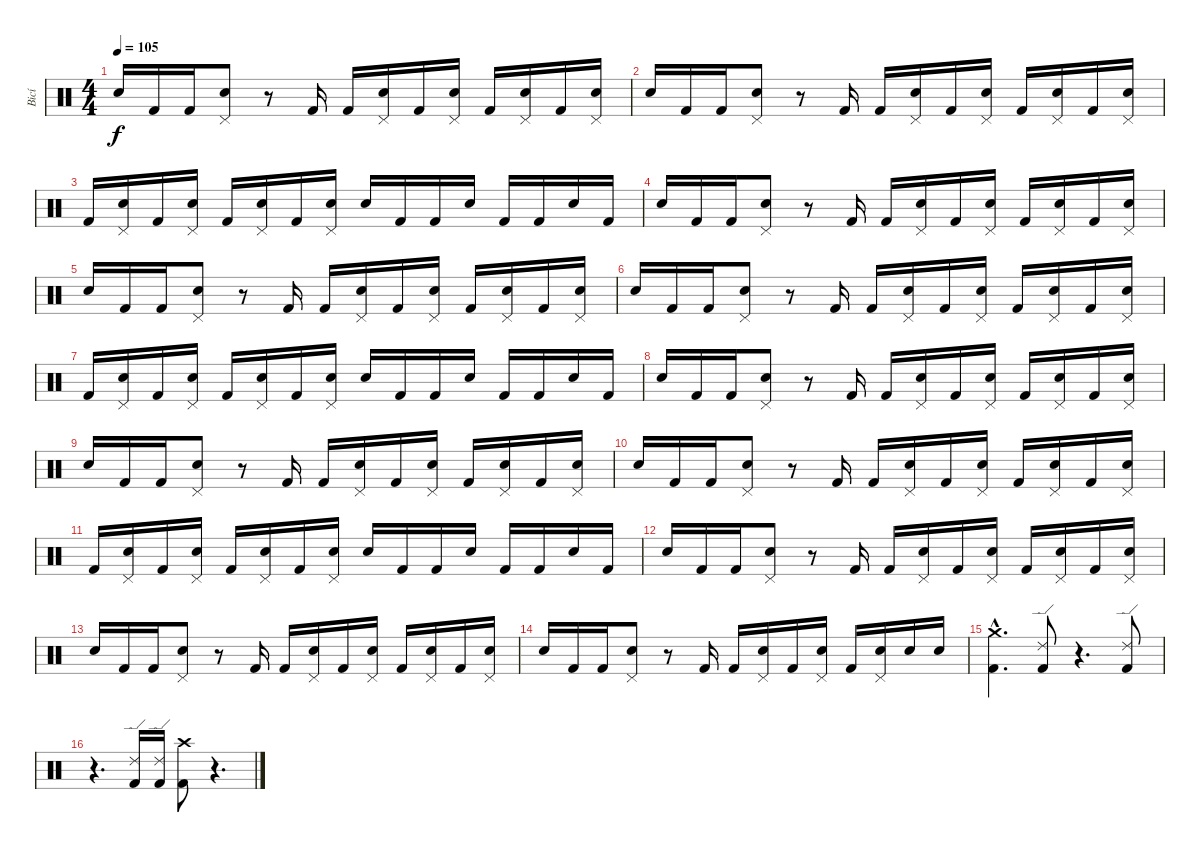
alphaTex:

\track ("Bicí" "Bicí") {instrument percussion}
\staff {score}
\articulation defaults
\ts (4 4)
\tempo 105
\clef neutral
\ks c "Snare (hit) 2".16{dy f} "Kick (hit) 2".16 "Kick (hit) 2".16
("Pedal Hi-Hat (hit)" "Snare (hit) 2").8 r.8 "Kick (hit) 2".16 "Kick (hit) 2".16 ("Pedal Hi-Hat (hit)" "Snare (hit) 2").16 "Kick (hit) 2".16 ("Pedal Hi-Hat (hit)" "Snare (hit) 2").16 "Kick (hit) 2".16 ("Pedal Hi-Hat (hit)" "Snare (hit) 2").16 "Kick (hit) 2".16 ("Pedal Hi-Hat (hit)" "Snare (hit) 2").16 |
"Snare (hit) 2".16 "Kick (hit) 2".16 "Kick (hit) 2".16 ("Pedal Hi-Hat (hit)" "Snare (hit) 2").8 r.8 "Kick (hit) 2".16 "Kick (hit) 2".16 ("Pedal Hi-Hat (hit)" "Snare (hit) 2").16 "Kick (hit) 2".16 ("Pedal Hi-Hat (hit)" "Snare (hit) 2").16 "Kick (hit) 2".16 ("Pedal Hi-Hat (hit)" "Snare (hit) 2").16 "Kick (hit) 2".16 ("Pedal Hi-Hat (hit)" "Snare (hit) 2").16 |
"Kick (hit) 2".16 ("Pedal Hi-Hat (hit)" "Snare (hit) 2").16 "Kick (hit) 2".16 ("Pedal Hi-Hat (hit)" "Snare (hit) 2").16 "Kick (hit) 2".16 ("Pedal Hi-Hat (hit)" "Snare (hit) 2").16 "Kick (hit) 2".16 ("Pedal Hi-Hat (hit)" "Snare (hit) 2").16 "Snare (hit) 2".16 "Kick (hit) 2".16 "Kick (hit) 2".16 "Snare (hit) 2".16 "Kick (hit) 2".16 "Kick (hit) 2".16 "Snare (hit) 2".16 "Kick (hit) 2".16 |
"Snare (hit) 2".16 "Kick (hit) 2".16 "Kick (hit) 2".16 ("Pedal Hi-Hat (hit)" "Snare (hit) 2").8 r.8 "Kick (hit) 2".16 "Kick (hit) 2".16 ("Pedal Hi-Hat (hit)" "Snare (hit) 2").16 "Kick (hit) 2".16 ("Pedal Hi-Hat (hit)" "Snare (hit) 2").16 "Kick (hit) 2".16 ("Pedal Hi-Hat (hit)" "Snare (hit) 2").16 "Kick (hit) 2".16 ("Pedal Hi-Hat (hit)" "Snare (hit) 2").16 |
"Snare (hit) 2".16 "Kick (hit) 2".16 "Kick (hit) 2".16 ("Pedal Hi-Hat (hit)" "Snare (hit) 2").8 r.8 "Kick (hit) 2".16 "Kick (hit) 2".16 ("Pedal Hi-Hat (hit)" "Snare (hit) 2").16 "Kick (hit) 2".16 ("Pedal Hi-Hat (hit)" "Snare (hit) 2").16 "Kick (hit) 2".16 ("Pedal Hi-Hat (hit)" "Snare (hit) 2").16 "Kick (hit) 2".16 ("Pedal Hi-Hat (hit)" "Snare (hit) 2").16 |
"Snare (hit) 2".16 "Kick (hit) 2".16 "Kick (hit) 2".16 ("Pedal Hi-Hat (hit)" "Snare (hit) 2").8 r.8 "Kick (hit) 2".16 "Kick (hit) 2".16 ("Pedal Hi-Hat (hit)" "Snare (hit) 2").16 "Kick (hit) 2".16 ("Pedal Hi-Hat (hit)" "Snare (hit) 2").16 "Kick (hit) 2".16 ("Pedal Hi-Hat (hit)" "Snare (hit) 2").16 "Kick (hit) 2".16 ("Pedal Hi-Hat (hit)" "Snare (hit) 2").16 |
"Kick (hit) 2".16 ("Pedal Hi-Hat (hit)" "Snare (hit) 2").16 "Kick (hit) 2".16 ("Pedal Hi-Hat (hit)" "Snare (hit) 2").16 "Kick (hit) 2".16 ("Pedal Hi-Hat (hit)" "Snare (hit) 2").16 "Kick (hit) 2".16 ("Pedal Hi-Hat (hit)" "Snare (hit) 2").16 "Snare (hit) 2".16 "Kick (hit) 2".16 "Kick (hit) 2".16 "Snare (hit) 2".16 "Kick (hit) 2".16 "Kick (hit) 2".16 "Snare (hit) 2".16 "Kick (hit) 2".16 |
"Snare (hit) 2".16 "Kick (hit) 2".16 "Kick (hit) 2".16 ("Pedal Hi-Hat (hit)" "Snare (hit) 2").8 r.8 "Kick (hit) 2".16 "Kick (hit) 2".16 ("Pedal Hi-Hat (hit)" "Snare (hit) 2").16 "Kick (hit) 2".16 ("Pedal Hi-Hat (hit)" "Snare (hit) 2").16 "Kick (hit) 2".16 ("Pedal Hi-Hat (hit)" "Snare (hit) 2").16 "Kick (hit) 2".16 ("Pedal Hi-Hat (hit)" "Snare (hit) 2").16 |
"Snare (hit) 2".16 "Kick (hit) 2".16 "Kick (hit) 2".16 ("Pedal Hi-Hat (hit)" "Snare (hit) 2").8 r.8 "Kick (hit) 2".16 "Kick (hit) 2".16 ("Pedal Hi-Hat (hit)" "Snare (hit) 2").16 "Kick (hit) 2".16 ("Pedal Hi-Hat (hit)" "Snare (hit) 2").16 "Kick (hit) 2".16 ("Pedal Hi-Hat (hit)" "Snare (hit) 2").16 "Kick (hit) 2".16 ("Pedal Hi-Hat (hit)" "Snare (hit) 2").16 |
"Snare (hit) 2".16 "Kick (hit) 2".16 "Kick (hit) 2".16 ("Pedal Hi-Hat (hit)" "Snare (hit) 2").8 r.8 "Kick (hit) 2".16 "Kick (hit) 2".16 ("Pedal Hi-Hat (hit)" "Snare (hit) 2").16 "Kick (hit) 2".16 ("Pedal Hi-Hat (hit)" "Snare (hit) 2").16 "Kick (hit) 2".16 ("Pedal Hi-Hat (hit)" "Snare (hit) 2").16 "Kick (hit) 2".16 ("Pedal Hi-Hat (hit)" "Snare (hit) 2").16 |
"Kick (hit) 2".16 ("Pedal Hi-Hat (hit)" "Snare (hit) 2").16 "Kick (hit) 2".16 ("Pedal Hi-Hat (hit)" "Snare (hit) 2").16 "Kick (hit) 2".16 ("Pedal Hi-Hat (hit)" "Snare (hit) 2").16 "Kick (hit) 2".16 ("Pedal Hi-Hat (hit)" "Snare (hit) 2").16 "Snare (hit) 2".16 "Kick (hit) 2".16 "Kick (hit) 2".16 "Snare (hit) 2".16 "Kick (hit) 2".16 "Kick (hit) 2".16 "Snare (hit) 2".16 "Kick (hit) 2".16 |
"Snare (hit) 2".16 "Kick (hit) 2".16 "Kick (hit) 2".16 ("Pedal Hi-Hat (hit)" "Snare (hit) 2").8 r.8 "Kick (hit) 2".16 "Kick (hit) 2".16 ("Pedal Hi-Hat (hit)" "Snare (hit) 2").16 "Kick (hit) 2".16 ("Pedal Hi-Hat (hit)" "Snare (hit) 2").16 "Kick (hit) 2".16 ("Pedal Hi-Hat (hit)" "Snare (hit) 2").16 "Kick (hit) 2".16 ("Pedal Hi-Hat (hit)" "Snare (hit) 2").16 |
"Snare (hit) 2".16 "Kick (hit) 2".16 "Kick (hit) 2".16 ("Pedal Hi-Hat (hit)" "Snare (hit) 2").8 r.8 "Kick (hit) 2".16 "Kick (hit) 2".16 ("Pedal Hi-Hat (hit)" "Snare (hit) 2").16 "Kick (hit) 2".16 ("Pedal Hi-Hat (hit)" "Snare (hit) 2").16 "Kick (hit) 2".16 ("Pedal Hi-Hat (hit)" "Snare (hit) 2").16 "Kick (hit) 2".16 ("Pedal Hi-Hat (hit)" "Snare (hit) 2").16 |
"Snare (hit) 2".16 "Kick (hit) 2".16 "Kick (hit) 2".16 ("Pedal Hi-Hat (hit)" "Snare (hit) 2").8 r.8 "Kick (hit) 2".16 "Kick (hit) 2".16 ("Pedal Hi-Hat (hit)" "Snare (hit) 2").16 "Kick (hit) 2".16 ("Pedal Hi-Hat (hit)" "Snare (hit) 2").16 "Kick (hit) 2".16 ("Pedal Hi-Hat (hit)" "Snare (hit) 2").16 "Snare (hit) 2".16 "Snare (hit) 2".16 |
("Crash medium (hit)"{hac} "Kick (hit) 2"{hac}).4{d} ("Ride (edge) 2" "Kick (hit) 2").8 r.4{d} ("Ride (edge) 2" "Kick (hit) 2").8 |
r.4{d} ("Ride (edge) 2" "Kick (hit) 2").16 ("Ride (edge) 2" "Kick (hit) 2").16 ("Crash high (hit)" "Kick (hit) 2").8 r.4{d}
